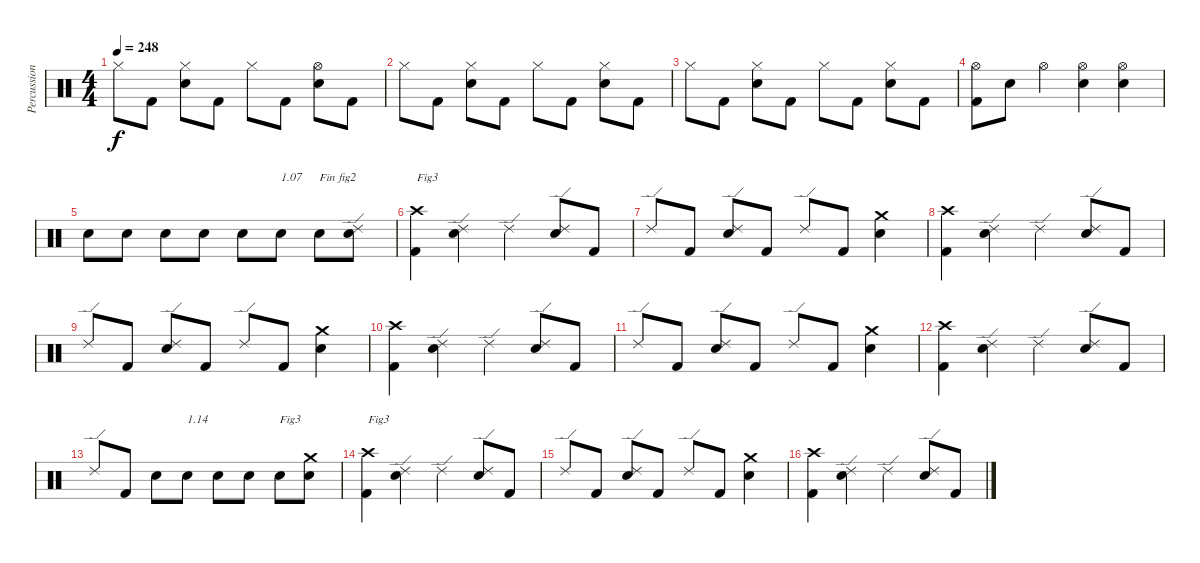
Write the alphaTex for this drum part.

\track ("Percussions" "Percussion") {instrument percussion}
\staff {score}
\articulation defaults
\ts (4 4)
\tempo 248
\clef neutral
\ks c "Hi-Hat (closed)".8{dy f} "Kick (hit) 2".8
("Electric Snare (hit)" "Hi-Hat (closed)").8 "Kick (hit) 2".8 "Hi-Hat (closed)".8 "Kick (hit) 2".8 ("Electric Snare (hit)" "Hi-Hat (open)").8 "Kick (hit) 2".8 |
"Hi-Hat (closed)".8 "Kick (hit) 2".8 ("Electric Snare (hit)" "Hi-Hat (closed)").8 "Kick (hit) 2".8 "Hi-Hat (closed)".8 "Kick (hit) 2".8 ("Electric Snare (hit)" "Hi-Hat (closed)").8 "Kick (hit) 2".8 |
"Hi-Hat (closed)".8 "Kick (hit) 2".8 ("Electric Snare (hit)" "Hi-Hat (closed)").8 "Kick (hit) 2".8 "Hi-Hat (closed)".8 "Kick (hit) 2".8 ("Electric Snare (hit)" "Hi-Hat (closed)").8 "Kick (hit) 2".8 |
("Kick (hit) 2" "Hi-Hat (open)").8 "Electric Snare (hit)".8 "Hi-Hat (open)".4 ("Electric Snare (hit)" "Hi-Hat (open)").4 ("Electric Snare (hit)" "Hi-Hat (open)").4 |
"Electric Snare (hit)".8 "Electric Snare (hit)".8 "Electric Snare (hit)".8 "Electric Snare (hit)".8 "Electric Snare (hit)".8 "Electric Snare (hit)".8{txt "1.07"} "Electric Snare (hit)".8{txt "Fin fig2"} ("Electric Snare (hit)" "Ride (edge) 2").8 |
("Kick (hit) 2" "Crash high (hit)").4{txt "Fig3"} ("Electric Snare (hit)" "Ride (edge) 2").4 "Ride (edge) 2".4 ("Electric Snare (hit)" "Ride (edge) 2").8 "Kick (hit) 2".8 |
"Ride (edge) 2".8 "Kick (hit) 2".8 ("Electric Snare (hit)" "Ride (edge) 2").8 "Kick (hit) 2".8 "Ride (edge) 2".8 "Kick (hit) 2".8 ("Electric Snare (hit)" "Crash medium (hit)").4 |
("Kick (hit) 2" "Crash high (hit)").4 ("Electric Snare (hit)" "Ride (edge) 2").4 "Ride (edge) 2".4 ("Electric Snare (hit)" "Ride (edge) 2").8 "Kick (hit) 2".8 |
"Ride (edge) 2".8 "Kick (hit) 2".8 ("Electric Snare (hit)" "Ride (edge) 2").8 "Kick (hit) 2".8 "Ride (edge) 2".8 "Kick (hit) 2".8 ("Electric Snare (hit)" "Crash medium (hit)").4 |
("Kick (hit) 2" "Crash high (hit)").4 ("Electric Snare (hit)" "Ride (edge) 2").4 "Ride (edge) 2".4 ("Electric Snare (hit)" "Ride (edge) 2").8 "Kick (hit) 2".8 |
"Ride (edge) 2".8 "Kick (hit) 2".8 ("Electric Snare (hit)" "Ride (edge) 2").8 "Kick (hit) 2".8 "Ride (edge) 2".8 "Kick (hit) 2".8 ("Electric Snare (hit)" "Crash medium (hit)").4 |
("Kick (hit) 2" "Crash high (hit)").4 ("Electric Snare (hit)" "Ride (edge) 2").4 "Ride (edge) 2".4 ("Electric Snare (hit)" "Ride (edge) 2").8 "Kick (hit) 2".8 |
"Ride (edge) 2".8 "Kick (hit) 2".8 "Electric Snare (hit)".8 "Electric Snare (hit)".8{txt "1.14"} "Electric Snare (hit)".8 "Electric Snare (hit)".8 "Electric Snare (hit)".8{txt "Fig3"} ("Electric Snare (hit)" "Crash medium (hit)").8 |
("Kick (hit) 2" "Crash high (hit)").4{txt "Fig3"} ("Electric Snare (hit)" "Ride (edge) 2").4 "Ride (edge) 2".4 ("Electric Snare (hit)" "Ride (edge) 2").8 "Kick (hit) 2".8 |
"Ride (edge) 2".8 "Kick (hit) 2".8 ("Electric Snare (hit)" "Ride (edge) 2").8 "Kick (hit) 2".8 "Ride (edge) 2".8 "Kick (hit) 2".8 ("Electric Snare (hit)" "Crash medium (hit)").4 |
("Kick (hit) 2" "Crash high (hit)").4 ("Electric Snare (hit)" "Ride (edge) 2").4 "Ride (edge) 2".4 ("Electric Snare (hit)" "Ride (edge) 2").8 "Kick (hit) 2".8
